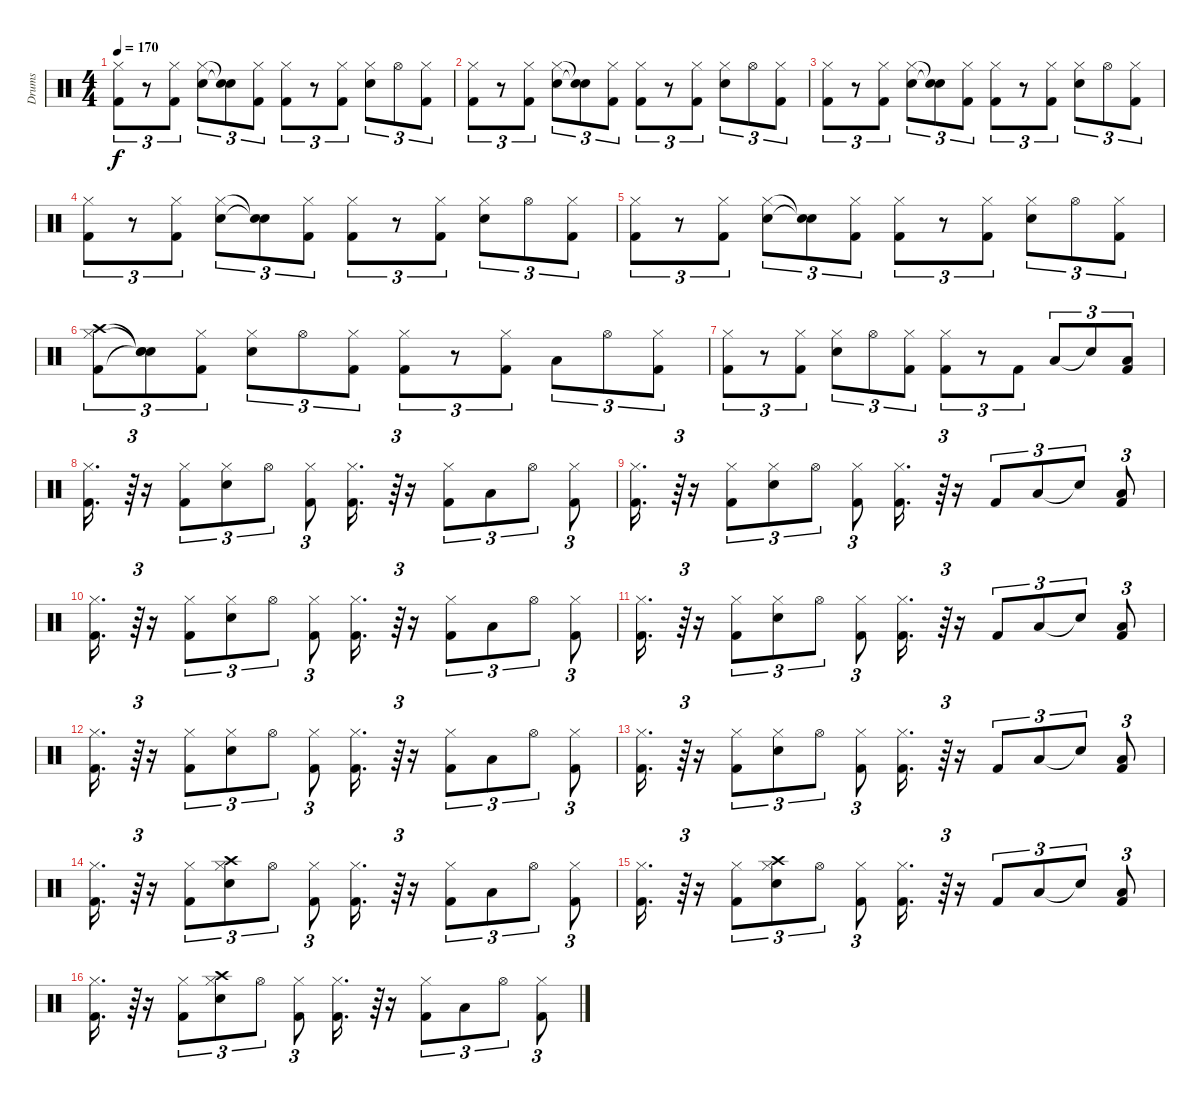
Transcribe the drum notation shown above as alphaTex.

\track ("Drums" "Drums") {instrument percussion}
\staff {score}
\articulation defaults
\ts (4 4)
\tempo 170
\clef neutral
\ks c
("Hi-Hat (closed)" "Kick (hit) 2").8{tu (3 2) dy f} r.8{tu (3 2)} ("Hi-Hat (closed)" "Kick (hit) 2").8{tu (3 2)} ("Hi-Hat (closed)" "Snare (hit) 2").8{tu (3 2)} ("Snare (hit)"{t} "Snare (hit)"{t}).8{tu (3 2)} ("Hi-Hat (closed)" "Kick (hit) 2").8{tu (3 2)} ("Hi-Hat (closed)" "Kick (hit) 2").8{tu (3 2)} r.8{tu (3 2)} ("Hi-Hat (closed)" "Kick (hit) 2").8{tu (3 2)} ("Hi-Hat (closed)" "Snare (hit) 2").8{tu (3 2)} "Hi-Hat (open)".8{tu (3 2)} ("Hi-Hat (closed)" "Kick (hit) 2").8{tu (3 2)} |
("Hi-Hat (closed)" "Kick (hit) 2").8{tu (3 2)} r.8{tu (3 2)} ("Hi-Hat (closed)" "Kick (hit) 2").8{tu (3 2)} ("Hi-Hat (closed)" "Snare (hit) 2").8{tu (3 2)} ("Snare (hit)"{t} "Snare (hit)"{t}).8{tu (3 2)} ("Hi-Hat (closed)" "Kick (hit) 2").8{tu (3 2)} ("Hi-Hat (closed)" "Kick (hit) 2").8{tu (3 2)} r.8{tu (3 2)} ("Hi-Hat (closed)" "Kick (hit) 2").8{tu (3 2)} ("Hi-Hat (closed)" "Snare (hit) 2").8{tu (3 2)} "Hi-Hat (open)".8{tu (3 2)} ("Hi-Hat (closed)" "Kick (hit) 2").8{tu (3 2)} |
("Hi-Hat (closed)" "Kick (hit) 2").8{tu (3 2)} r.8{tu (3 2)} ("Hi-Hat (closed)" "Kick (hit) 2").8{tu (3 2)} ("Hi-Hat (closed)" "Snare (hit) 2").8{tu (3 2)} ("Snare (hit)"{t} "Snare (hit)"{t}).8{tu (3 2)} ("Hi-Hat (closed)" "Kick (hit) 2").8{tu (3 2)} ("Hi-Hat (closed)" "Kick (hit) 2").8{tu (3 2)} r.8{tu (3 2)} ("Hi-Hat (closed)" "Kick (hit) 2").8{tu (3 2)} ("Hi-Hat (closed)" "Snare (hit) 2").8{tu (3 2)} "Hi-Hat (open)".8{tu (3 2)} ("Hi-Hat (closed)" "Kick (hit) 2").8{tu (3 2)} |
("Hi-Hat (closed)" "Kick (hit) 2").8{tu (3 2)} r.8{tu (3 2)} ("Hi-Hat (closed)" "Kick (hit) 2").8{tu (3 2)} ("Hi-Hat (closed)" "Snare (hit) 2").8{tu (3 2)} ("Snare (hit)"{t} "Snare (hit)"{t}).8{tu (3 2)} ("Hi-Hat (closed)" "Kick (hit) 2").8{tu (3 2)} ("Hi-Hat (closed)" "Kick (hit) 2").8{tu (3 2)} r.8{tu (3 2)} ("Hi-Hat (closed)" "Kick (hit) 2").8{tu (3 2)} ("Hi-Hat (closed)" "Snare (hit) 2").8{tu (3 2)} "Hi-Hat (open)".8{tu (3 2)} ("Hi-Hat (closed)" "Kick (hit) 2").8{tu (3 2)} |
("Hi-Hat (closed)" "Kick (hit) 2").8{tu (3 2)} r.8{tu (3 2)} ("Hi-Hat (closed)" "Kick (hit) 2").8{tu (3 2)} ("Hi-Hat (closed)" "Snare (hit) 2").8{tu (3 2)} ("Snare (hit)"{t} "Snare (hit)"{t}).8{tu (3 2)} ("Hi-Hat (closed)" "Kick (hit) 2").8{tu (3 2)} ("Hi-Hat (closed)" "Kick (hit) 2").8{tu (3 2)} r.8{tu (3 2)} ("Hi-Hat (closed)" "Kick (hit) 2").8{tu (3 2)} ("Hi-Hat (closed)" "Snare (hit) 2").8{tu (3 2)} "Hi-Hat (open)".8{tu (3 2)} ("Hi-Hat (closed)" "Kick (hit) 2").8{tu (3 2)} |
("Crash high (hit)" "Hi-Hat (closed)" "Kick (hit) 2").8{tu (3 2)} ("Snare (hit)"{t} "Snare (hit)"{t} "Snare (hit)"{t}).8{tu (3 2)} ("Hi-Hat (closed)" "Kick (hit) 2").8{tu (3 2)} ("Hi-Hat (closed)" "Snare (hit) 2").8{tu (3 2)} "Hi-Hat (open)".8{tu (3 2)} ("Hi-Hat (closed)" "Kick (hit) 2").8{tu (3 2)} ("Hi-Hat (closed)" "Kick (hit) 2").8{tu (3 2)} r.8{tu (3 2)} ("Hi-Hat (closed)" "Kick (hit) 2").8{tu (3 2)} "Low Tom (hit)".8{tu (3 2)} "Hi-Hat (open)".8{tu (3 2)} ("Hi-Hat (closed)" "Kick (hit) 2").8{tu (3 2)} |
("Hi-Hat (closed)" "Kick (hit) 2").8{tu (3 2)} r.8{tu (3 2)} ("Hi-Hat (closed)" "Kick (hit) 2").8{tu (3 2)} ("Hi-Hat (closed)" "Snare (hit) 2").8{tu (3 2)} "Hi-Hat (open)".8{tu (3 2)} ("Hi-Hat (closed)" "Kick (hit) 2").8{tu (3 2)} ("Hi-Hat (closed)" "Kick (hit) 2").8{tu (3 2)} r.8{tu (3 2)} "Kick (hit) 2".8{tu (3 2)} "Low Tom (hit)".8{tu (3 2)} "Snare (hit)"{t}.8{tu (3 2)} ("Low Tom (hit)" "Kick (hit) 2").8{tu (3 2)} |
("Hi-Hat (closed)" "Kick (hit) 2").16{d} r.64{tu (3 2)} r.16 ("Hi-Hat (closed)" "Kick (hit) 2").8{tu (3 2)} ("Hi-Hat (closed)" "Snare (hit) 2").8{tu (3 2)} "Hi-Hat (open)".8{tu (3 2)} ("Hi-Hat (closed)" "Kick (hit) 2").8{tu (3 2)} ("Hi-Hat (closed)" "Kick (hit) 2").16{d} r.64{tu (3 2)} r.16 ("Hi-Hat (closed)" "Kick (hit) 2").8{tu (3 2)} "Low Tom (hit)".8{tu (3 2)} "Hi-Hat (open)".8{tu (3 2)} ("Hi-Hat (closed)" "Kick (hit) 2").8{tu (3 2)} |
("Hi-Hat (closed)" "Kick (hit) 2").16{d} r.64{tu (3 2)} r.16 ("Hi-Hat (closed)" "Kick (hit) 2").8{tu (3 2)} ("Hi-Hat (closed)" "Snare (hit) 2").8{tu (3 2)} "Hi-Hat (open)".8{tu (3 2)} ("Hi-Hat (closed)" "Kick (hit) 2").8{tu (3 2)} ("Hi-Hat (closed)" "Kick (hit) 2").16{d} r.64{tu (3 2)} r.16 "Kick (hit) 2".8{tu (3 2)} "Low Tom (hit)".8{tu (3 2)} "Snare (hit)"{t}.8{tu (3 2)} ("Low Tom (hit)" "Kick (hit) 2").8{tu (3 2)} |
("Hi-Hat (closed)" "Kick (hit) 2").16{d} r.64{tu (3 2)} r.16 ("Hi-Hat (closed)" "Kick (hit) 2").8{tu (3 2)} ("Hi-Hat (closed)" "Snare (hit) 2").8{tu (3 2)} "Hi-Hat (open)".8{tu (3 2)} ("Hi-Hat (closed)" "Kick (hit) 2").8{tu (3 2)} ("Hi-Hat (closed)" "Kick (hit) 2").16{d} r.64{tu (3 2)} r.16 ("Hi-Hat (closed)" "Kick (hit) 2").8{tu (3 2)} "Low Tom (hit)".8{tu (3 2)} "Hi-Hat (open)".8{tu (3 2)} ("Hi-Hat (closed)" "Kick (hit) 2").8{tu (3 2)} |
("Hi-Hat (closed)" "Kick (hit) 2").16{d} r.64{tu (3 2)} r.16 ("Hi-Hat (closed)" "Kick (hit) 2").8{tu (3 2)} ("Hi-Hat (closed)" "Snare (hit) 2").8{tu (3 2)} "Hi-Hat (open)".8{tu (3 2)} ("Hi-Hat (closed)" "Kick (hit) 2").8{tu (3 2)} ("Hi-Hat (closed)" "Kick (hit) 2").16{d} r.64{tu (3 2)} r.16 "Kick (hit) 2".8{tu (3 2)} "Low Tom (hit)".8{tu (3 2)} "Snare (hit)"{t}.8{tu (3 2)} ("Low Tom (hit)" "Kick (hit) 2").8{tu (3 2)} |
("Hi-Hat (closed)" "Kick (hit) 2").16{d} r.64{tu (3 2)} r.16 ("Hi-Hat (closed)" "Kick (hit) 2").8{tu (3 2)} ("Hi-Hat (closed)" "Snare (hit) 2").8{tu (3 2)} "Hi-Hat (open)".8{tu (3 2)} ("Hi-Hat (closed)" "Kick (hit) 2").8{tu (3 2)} ("Hi-Hat (closed)" "Kick (hit) 2").16{d} r.64{tu (3 2)} r.16 ("Hi-Hat (closed)" "Kick (hit) 2").8{tu (3 2)} "Low Tom (hit)".8{tu (3 2)} "Hi-Hat (open)".8{tu (3 2)} ("Hi-Hat (closed)" "Kick (hit) 2").8{tu (3 2)} |
("Hi-Hat (closed)" "Kick (hit) 2").16{d} r.64{tu (3 2)} r.16 ("Hi-Hat (closed)" "Kick (hit) 2").8{tu (3 2)} ("Hi-Hat (closed)" "Snare (hit) 2").8{tu (3 2)} "Hi-Hat (open)".8{tu (3 2)} ("Hi-Hat (closed)" "Kick (hit) 2").8{tu (3 2)} ("Hi-Hat (closed)" "Kick (hit) 2").16{d} r.64{tu (3 2)} r.16 "Kick (hit) 2".8{tu (3 2)} "Low Tom (hit)".8{tu (3 2)} "Snare (hit)"{t}.8{tu (3 2)} ("Low Tom (hit)" "Kick (hit) 2").8{tu (3 2)} |
("Hi-Hat (closed)" "Kick (hit) 2").16{d} r.64{tu (3 2)} r.16 ("Hi-Hat (closed)" "Kick (hit) 2").8{tu (3 2)} ("Crash high (hit)" "Hi-Hat (closed)" "Snare (hit) 2").8{tu (3 2)} "Hi-Hat (open)".8{tu (3 2)} ("Hi-Hat (closed)" "Kick (hit) 2").8{tu (3 2)} ("Hi-Hat (closed)" "Kick (hit) 2").16{d} r.64{tu (3 2)} r.16 ("Hi-Hat (closed)" "Kick (hit) 2").8{tu (3 2)} "Low Tom (hit)".8{tu (3 2)} "Hi-Hat (open)".8{tu (3 2)} ("Hi-Hat (closed)" "Kick (hit) 2").8{tu (3 2)} |
("Hi-Hat (closed)" "Kick (hit) 2").16{d} r.64{tu (3 2)} r.16 ("Hi-Hat (closed)" "Kick (hit) 2").8{tu (3 2)} ("Crash high (hit)" "Hi-Hat (closed)" "Snare (hit) 2").8{tu (3 2)} "Hi-Hat (open)".8{tu (3 2)} ("Hi-Hat (closed)" "Kick (hit) 2").8{tu (3 2)} ("Hi-Hat (closed)" "Kick (hit) 2").16{d} r.64{tu (3 2)} r.16 "Kick (hit) 2".8{tu (3 2)} "Low Tom (hit)".8{tu (3 2)} "Snare (hit)"{t}.8{tu (3 2)} ("Low Tom (hit)" "Kick (hit) 2").8{tu (3 2)} |
("Hi-Hat (closed)" "Kick (hit) 2").16{d} r.64{tu (3 2)} r.16 ("Hi-Hat (closed)" "Kick (hit) 2").8{tu (3 2)} ("Crash high (hit)" "Hi-Hat (closed)" "Snare (hit) 2").8{tu (3 2)} "Hi-Hat (open)".8{tu (3 2)} ("Hi-Hat (closed)" "Kick (hit) 2").8{tu (3 2)} ("Hi-Hat (closed)" "Kick (hit) 2").16{d} r.64{tu (3 2)} r.16 ("Hi-Hat (closed)" "Kick (hit) 2").8{tu (3 2)} "Low Tom (hit)".8{tu (3 2)} "Hi-Hat (open)".8{tu (3 2)} ("Hi-Hat (closed)" "Kick (hit) 2").8{tu (3 2)}
